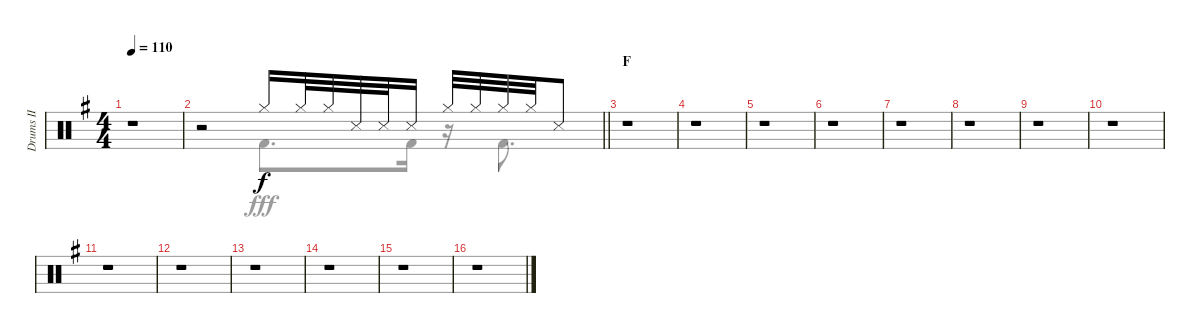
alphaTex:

\track ("Drums II" "Drums II") {instrument percussion}
\staff {score}
\articulation defaults
\voice
\ts (4 4)
\tempo 110
\clef neutral
\ks g
r.1{dy f} |
\barLineRight lightlight
r.2 "Hi-Hat (closed)".16 "Hi-Hat (closed)".32 "Hi-Hat (closed)".32 "Snare (side stick) 3".32 "Snare (side stick) 3".32 "Snare (side stick) 3".16 "Hi-Hat (closed)".32 "Hi-Hat (closed)".32 "Hi-Hat (closed)".32 "Hi-Hat (closed)".32 "Snare (side stick) 3".8 |
\section ("" "F")
r.1 |
r.1 |
r.1 |
r.1 |
r.1 |
r.1 |
r.1 |
r.1 |
r.1 |
r.1 |
r.1 |
r.1 |
r.1 |
r.1
\voice
\clef neutral
\ottava regular
\simile none
\ks g
r.1{dy fff} |
\barLineRight lightlight
r.2 "Kick (hit) 2".8{d} "Kick (hit) 2".16 r.16 "Kick (hit) 2".8{d} |
r.1 |
r.1 |
r.1 |
r.1 |
r.1 |
r.1 |
r.1 |
r.1 |
r.1 |
r.1 |
r.1 |
r.1 |
r.1 |
r.1
